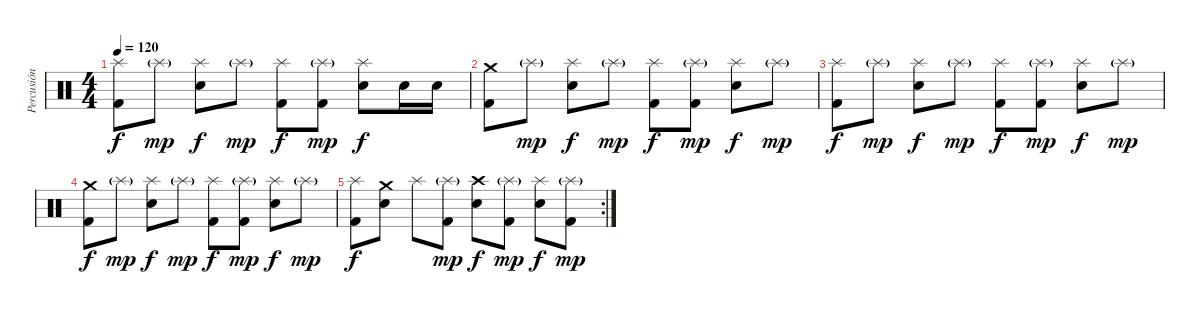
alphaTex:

\track ("Percusión" "Percusión") {instrument percussion}
\staff {score}
\articulation defaults
\ts (4 4)
\tempo 120
\clef neutral
\ks c
("Splash (hit)" "Kick (hit) 2").8{dy f} "Splash (hit)"{g}.8{dy mp} ("Splash (hit)" "Electric Snare (hit)").8{dy f} "Splash (hit)"{g}.8{dy mp} ("Splash (hit)" "Kick (hit) 2").8{dy f} ("Splash (hit)"{g} "Kick (hit) 2").8{dy mp} ("Splash (hit)" "Electric Snare (hit)").8{dy f} "Electric Snare (hit)".16 "Electric Snare (hit)".16 |
("Crash medium (hit)" "Kick (hit) 2").8 "Splash (hit)"{g}.8{dy mp} ("Splash (hit)" "Electric Snare (hit)").8{dy f} "Splash (hit)"{g}.8{dy mp} ("Splash (hit)" "Kick (hit) 2").8{dy f} ("Splash (hit)"{g} "Kick (hit) 2").8{dy mp} ("Splash (hit)" "Electric Snare (hit)").8{dy f} "Splash (hit)"{g}.8{dy mp} |
("Splash (hit)" "Kick (hit) 2").8{dy f} "Splash (hit)"{g}.8{dy mp} ("Splash (hit)" "Electric Snare (hit)").8{dy f} "Splash (hit)"{g}.8{dy mp} ("Splash (hit)" "Kick (hit) 2").8{dy f} ("Splash (hit)"{g} "Kick (hit) 2").8{dy mp} ("Splash (hit)" "Electric Snare (hit)").8{dy f} "Splash (hit)"{g}.8{dy mp} |
("Crash medium (hit)" "Kick (hit) 2").8{dy f} "Splash (hit)"{g}.8{dy mp} ("Splash (hit)" "Electric Snare (hit)").8{dy f} "Splash (hit)"{g}.8{dy mp} ("Splash (hit)" "Kick (hit) 2").8{dy f} ("Splash (hit)"{g} "Kick (hit) 2").8{dy mp} ("Splash (hit)" "Electric Snare (hit)").8{dy f} "Splash (hit)"{g}.8{dy mp} |
\rc 2
("Splash (hit)" "Kick (hit) 2").8{dy f} ("Crash medium (hit)" "Electric Snare (hit)").8 "Splash (hit)".8 ("Splash (hit)"{g} "Kick (hit) 2").8{dy mp} ("Crash high (hit)" "Electric Snare (hit)").8{dy f} ("Splash (hit)"{g} "Kick (hit) 2").8{dy mp} ("Splash (hit)" "Electric Snare (hit)").8{dy f} ("Splash (hit)"{g} "Kick (hit) 2").8{dy mp}
